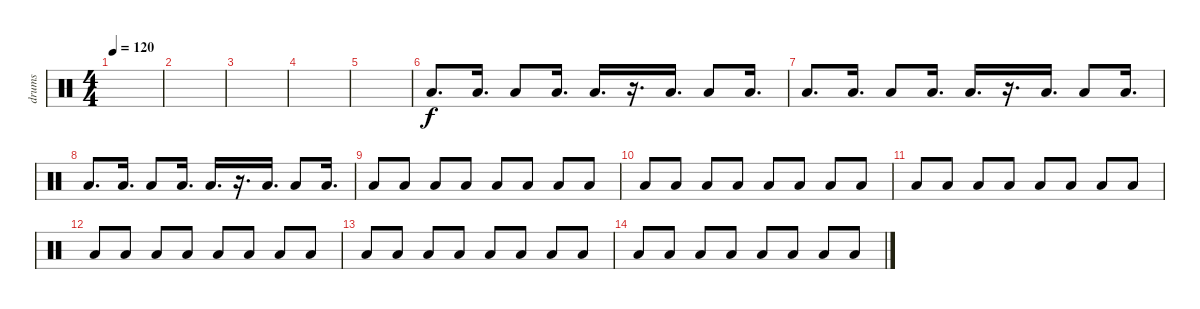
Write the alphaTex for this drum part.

\track ("drums" "drums") {instrument percussion}
\staff {score}
\articulation defaults
\ts (4 4)
\tempo 120
\clef neutral
\ks c
|
|
|
|
|
"Low Floor Tom (hit)".8{d} "Low Floor Tom (hit)".16{d} "Low Tom (hit)".8 "Low Floor Tom (hit)".16{d} "Low Floor Tom (hit)".16{d} r.16{d} "Low Floor Tom (hit)".16{d} "Low Tom (hit)".8 "Low Floor Tom (hit)".16{d} |
"Low Floor Tom (hit)".8{d} "Low Floor Tom (hit)".16{d} "Low Tom (hit)".8 "Low Floor Tom (hit)".16{d} "Low Floor Tom (hit)".16{d} r.16{d} "Low Floor Tom (hit)".16{d} "Low Tom (hit)".8 "Low Floor Tom (hit)".16{d} |
"Low Floor Tom (hit)".8{d} "Low Floor Tom (hit)".16{d} "Low Tom (hit)".8 "Low Floor Tom (hit)".16{d} "Low Floor Tom (hit)".16{d} r.16{d} "Low Floor Tom (hit)".16{d} "Low Tom (hit)".8 "Low Floor Tom (hit)".16{d} |
"Low Floor Tom (hit)".8 "Low Floor Tom (hit)".8 "Low Tom (hit)".8 "Low Floor Tom (hit)".8 "Low Floor Tom (hit)".8 "Low Floor Tom (hit)".8 "Low Tom (hit)".8 "Low Floor Tom (hit)".8 |
"Low Floor Tom (hit)".8 "Low Floor Tom (hit)".8 "Low Tom (hit)".8 "Low Floor Tom (hit)".8 "Low Floor Tom (hit)".8 "Low Floor Tom (hit)".8 "Low Tom (hit)".8 "Low Floor Tom (hit)".8 |
"Low Floor Tom (hit)".8 "Low Floor Tom (hit)".8 "Low Tom (hit)".8 "Low Floor Tom (hit)".8 "Low Floor Tom (hit)".8 "Low Floor Tom (hit)".8 "Low Tom (hit)".8 "Low Floor Tom (hit)".8 |
"Low Floor Tom (hit)".8 "Low Floor Tom (hit)".8 "Low Tom (hit)".8 "Low Floor Tom (hit)".8 "Low Floor Tom (hit)".8 "Low Floor Tom (hit)".8 "Low Tom (hit)".8 "Low Floor Tom (hit)".8 |
"Low Floor Tom (hit)".8 "Low Floor Tom (hit)".8 "Low Tom (hit)".8 "Low Floor Tom (hit)".8 "Low Floor Tom (hit)".8 "Low Floor Tom (hit)".8 "Low Tom (hit)".8 "Low Floor Tom (hit)".8 |
"Low Floor Tom (hit)".8 "Low Floor Tom (hit)".8 "Low Tom (hit)".8 "Low Floor Tom (hit)".8 "Low Floor Tom (hit)".8 "Low Floor Tom (hit)".8 "Low Tom (hit)".8 "Low Floor Tom (hit)".8
